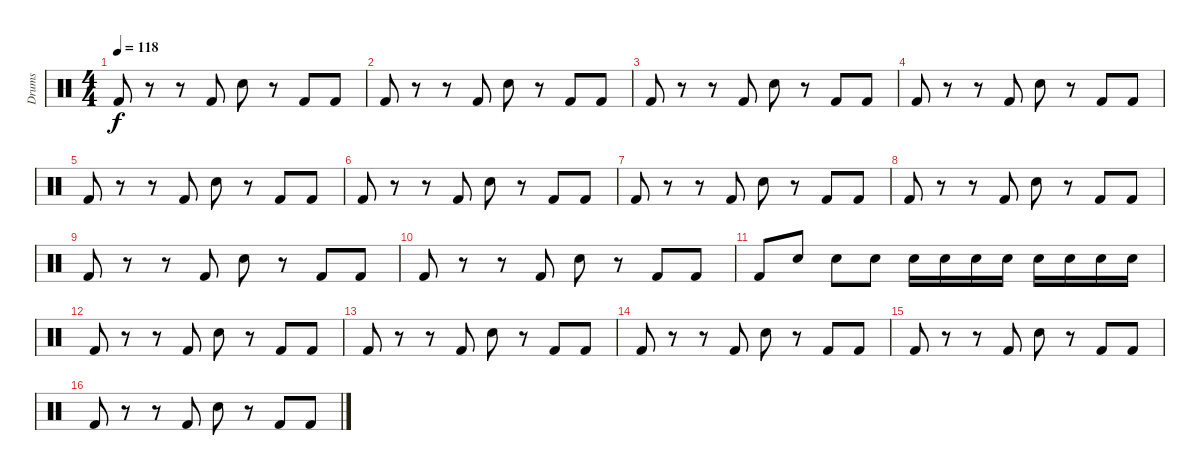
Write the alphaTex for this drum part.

\track ("Drums" "Drums") {instrument percussion}
\staff {score}
\articulation defaults
\ts (4 4)
\tempo 118
\clef neutral
\ks c "Kick (hit) 2".8{dy f}
r.8 r.8 "Kick (hit) 2".8 "Electric Snare (hit)".8 r.8 "Kick (hit) 2".8 "Kick (hit) 2".8 |
"Kick (hit) 2".8 r.8 r.8 "Kick (hit) 2".8 "Electric Snare (hit)".8 r.8 "Kick (hit) 2".8 "Kick (hit) 2".8 |
"Kick (hit) 2".8 r.8 r.8 "Kick (hit) 2".8 "Electric Snare (hit)".8 r.8 "Kick (hit) 2".8 "Kick (hit) 2".8 |
"Kick (hit) 2".8 r.8 r.8 "Kick (hit) 2".8 "Electric Snare (hit)".8 r.8 "Kick (hit) 2".8 "Kick (hit) 2".8 |
"Kick (hit) 2".8 r.8 r.8 "Kick (hit) 2".8 "Electric Snare (hit)".8 r.8 "Kick (hit) 2".8 "Kick (hit) 2".8 |
"Kick (hit) 2".8 r.8 r.8 "Kick (hit) 2".8 "Electric Snare (hit)".8 r.8 "Kick (hit) 2".8 "Kick (hit) 2".8 |
"Kick (hit) 2".8 r.8 r.8 "Kick (hit) 2".8 "Electric Snare (hit)".8 r.8 "Kick (hit) 2".8 "Kick (hit) 2".8 |
"Kick (hit) 2".8 r.8 r.8 "Kick (hit) 2".8 "Electric Snare (hit)".8 r.8 "Kick (hit) 2".8 "Kick (hit) 2".8 |
"Kick (hit) 2".8 r.8 r.8 "Kick (hit) 2".8 "Electric Snare (hit)".8 r.8 "Kick (hit) 2".8 "Kick (hit) 2".8 |
"Kick (hit) 2".8 r.8 r.8 "Kick (hit) 2".8 "Electric Snare (hit)".8 r.8 "Kick (hit) 2".8 "Kick (hit) 2".8 |
"Kick (hit) 2".8 "Electric Snare (hit)".8 "Electric Snare (hit)".8 "Electric Snare (hit)".8 "Electric Snare (hit)".16 "Electric Snare (hit)".16 "Electric Snare (hit)".16 "Electric Snare (hit)".16 "Electric Snare (hit)".16 "Electric Snare (hit)".16 "Electric Snare (hit)".16 "Electric Snare (hit)".16 |
"Kick (hit) 2".8 r.8 r.8 "Kick (hit) 2".8 "Electric Snare (hit)".8 r.8 "Kick (hit) 2".8 "Kick (hit) 2".8 |
"Kick (hit) 2".8 r.8 r.8 "Kick (hit) 2".8 "Electric Snare (hit)".8 r.8 "Kick (hit) 2".8 "Kick (hit) 2".8 |
"Kick (hit) 2".8 r.8 r.8 "Kick (hit) 2".8 "Electric Snare (hit)".8 r.8 "Kick (hit) 2".8 "Kick (hit) 2".8 |
"Kick (hit) 2".8 r.8 r.8 "Kick (hit) 2".8 "Electric Snare (hit)".8 r.8 "Kick (hit) 2".8 "Kick (hit) 2".8 |
"Kick (hit) 2".8 r.8 r.8 "Kick (hit) 2".8 "Electric Snare (hit)".8 r.8 "Kick (hit) 2".8 "Kick (hit) 2".8
